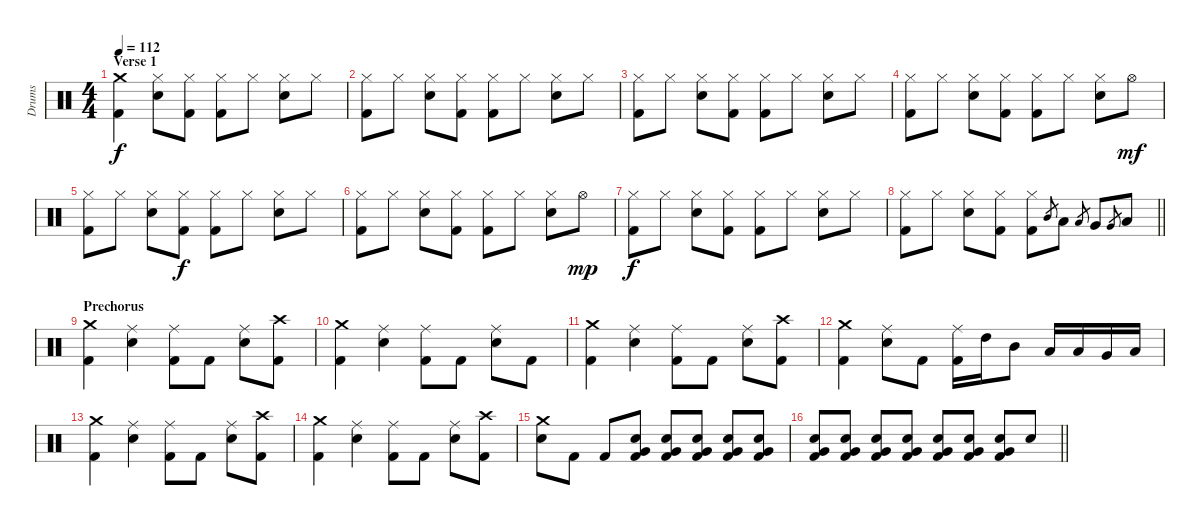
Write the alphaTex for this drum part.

\track ("Drums" "Drums") {instrument percussion}
\staff {score}
\articulation defaults
\ts (4 4)
\section ("" "Verse 1")
\tempo 112
\clef neutral
\ks c
("Crash medium (hit)" "Kick (hit) 2").4{dy f} ("Hi-Hat (closed)" "Snare (hit) 2").8 ("Hi-Hat (closed)" "Kick (hit) 2").8 ("Hi-Hat (closed)" "Kick (hit) 2").8 "Hi-Hat (closed)".8 ("Hi-Hat (closed)" "Snare (hit) 2").8 "Hi-Hat (closed)".8 |
("Hi-Hat (closed)" "Kick (hit) 2").8 "Hi-Hat (closed)".8 ("Hi-Hat (closed)" "Snare (hit) 2").8 ("Hi-Hat (closed)" "Kick (hit) 2").8 ("Hi-Hat (closed)" "Kick (hit) 2").8 "Hi-Hat (closed)".8 ("Hi-Hat (closed)" "Snare (hit) 2").8 "Hi-Hat (closed)".8 |
("Hi-Hat (closed)" "Kick (hit) 2").8 "Hi-Hat (closed)".8 ("Hi-Hat (closed)" "Snare (hit) 2").8 ("Hi-Hat (closed)" "Kick (hit) 2").8 ("Hi-Hat (closed)" "Kick (hit) 2").8 "Hi-Hat (closed)".8 ("Hi-Hat (closed)" "Snare (hit) 2").8 "Hi-Hat (closed)".8 |
("Hi-Hat (closed)" "Kick (hit) 2").8 "Hi-Hat (closed)".8 ("Hi-Hat (closed)" "Snare (hit) 2").8 ("Hi-Hat (closed)" "Kick (hit) 2").8 ("Hi-Hat (closed)" "Kick (hit) 2").8 "Hi-Hat (closed)".8 ("Hi-Hat (closed)" "Snare (hit) 2").8 "Hi-Hat (open)".8{dy mf} |
("Hi-Hat (closed)" "Kick (hit) 2").8 "Hi-Hat (closed)".8 ("Hi-Hat (closed)" "Snare (hit) 2").8 ("Hi-Hat (closed)" "Kick (hit) 2").8{dy f} ("Hi-Hat (closed)" "Kick (hit) 2").8 "Hi-Hat (closed)".8 ("Hi-Hat (closed)" "Snare (hit) 2").8 "Hi-Hat (closed)".8 |
("Hi-Hat (closed)" "Kick (hit) 2").8 "Hi-Hat (closed)".8 ("Hi-Hat (closed)" "Snare (hit) 2").8 ("Hi-Hat (closed)" "Kick (hit) 2").8 ("Hi-Hat (closed)" "Kick (hit) 2").8 "Hi-Hat (closed)".8 ("Hi-Hat (closed)" "Snare (hit) 2").8 "Hi-Hat (open)".8{dy mp} |
("Hi-Hat (closed)" "Kick (hit) 2").8{dy f} "Hi-Hat (closed)".8 ("Hi-Hat (closed)" "Snare (hit) 2").8 ("Hi-Hat (closed)" "Kick (hit) 2").8 ("Hi-Hat (closed)" "Kick (hit) 2").8 "Hi-Hat (closed)".8 ("Hi-Hat (closed)" "Snare (hit) 2").8 "Hi-Hat (closed)".8 |
\barLineRight lightlight
("Hi-Hat (closed)" "Kick (hit) 2").8 "Hi-Hat (closed)".8 ("Hi-Hat (closed)" "Snare (hit) 2").8 ("Hi-Hat (closed)" "Kick (hit) 2").8 ("Hi-Hat (closed)" "Kick (hit) 2").8 "Mid Tom (hit)".8{gr} "Low Tom (hit)".8 "Low Tom (hit)".8{gr} "Very Low Tom (hit)".8 "Very Low Tom (hit)".8{gr} "Low Floor Tom (hit)".8 |
\section ("" "Prechorus")
("Crash medium (hit)" "Kick (hit) 2").4 ("Ride (middle)" "Snare (hit) 2").4 ("Ride (middle)" "Kick (hit) 2").8 "Kick (hit) 2".8 ("Ride (middle)" "Snare (hit) 2").8 ("Crash high (hit)" "Kick (hit) 2").8 |
("Crash medium (hit)" "Kick (hit) 2").4 ("Ride (middle)" "Snare (hit) 2").4 ("Ride (middle)" "Kick (hit) 2").8 "Kick (hit) 2".8 ("Ride (middle)" "Snare (hit) 2").8 "Kick (hit) 2".8 |
("Crash medium (hit)" "Kick (hit) 2").4 ("Ride (middle)" "Snare (hit) 2").4 ("Ride (middle)" "Kick (hit) 2").8 "Kick (hit) 2".8 ("Ride (middle)" "Snare (hit) 2").8 ("Crash high (hit)" "Kick (hit) 2").8 |
("Crash medium (hit)" "Kick (hit) 2").4 ("Ride (middle)" "Snare (hit) 2").8 "Kick (hit) 2".8 ("Ride (middle)" "Kick (hit) 2").16 "High Tom (hit)".16 "Mid Tom (hit)".8 "Low Tom (hit)".16 "Low Tom (hit)".16 "Very Low Tom (hit)".16 "Low Floor Tom (hit)".16 |
("Crash medium (hit)" "Kick (hit) 2").4 ("Ride (middle)" "Snare (hit) 2").4 ("Ride (middle)" "Kick (hit) 2").8 "Kick (hit) 2".8 ("Ride (middle)" "Snare (hit) 2").8 ("Crash high (hit)" "Kick (hit) 2").8 |
("Crash medium (hit)" "Kick (hit) 2").4 ("Ride (middle)" "Snare (hit) 2").4 ("Ride (middle)" "Kick (hit) 2").8 "Kick (hit) 2".8 ("Ride (middle)" "Snare (hit) 2").8 ("Crash high (hit)" "Kick (hit) 2").8 |
("Crash medium (hit)" "Snare (hit) 2").8 "Kick (hit) 2".8 "Kick (hit) 2".8 ("Very Low Tom (hit)" "Snare (hit) 2" "Kick (hit) 2").8 ("Very Low Tom (hit)" "Snare (hit) 2" "Kick (hit) 2").8 ("Very Low Tom (hit)" "Snare (hit) 2" "Kick (hit) 2").8 ("Very Low Tom (hit)" "Snare (hit) 2" "Kick (hit) 2").8 ("Very Low Tom (hit)" "Snare (hit) 2" "Kick (hit) 2").8 |
\barLineRight lightlight
("Very Low Tom (hit)" "Snare (hit) 2" "Kick (hit) 2").8 ("Very Low Tom (hit)" "Snare (hit) 2" "Kick (hit) 2").8 ("Very Low Tom (hit)" "Snare (hit) 2" "Kick (hit) 2").8 ("Very Low Tom (hit)" "Snare (hit) 2" "Kick (hit) 2").8 ("Very Low Tom (hit)" "Snare (hit) 2" "Kick (hit) 2").8 ("Very Low Tom (hit)" "Snare (hit) 2" "Kick (hit) 2").8 ("Very Low Tom (hit)" "Snare (hit) 2" "Kick (hit) 2").8 "Snare (hit) 2".8
